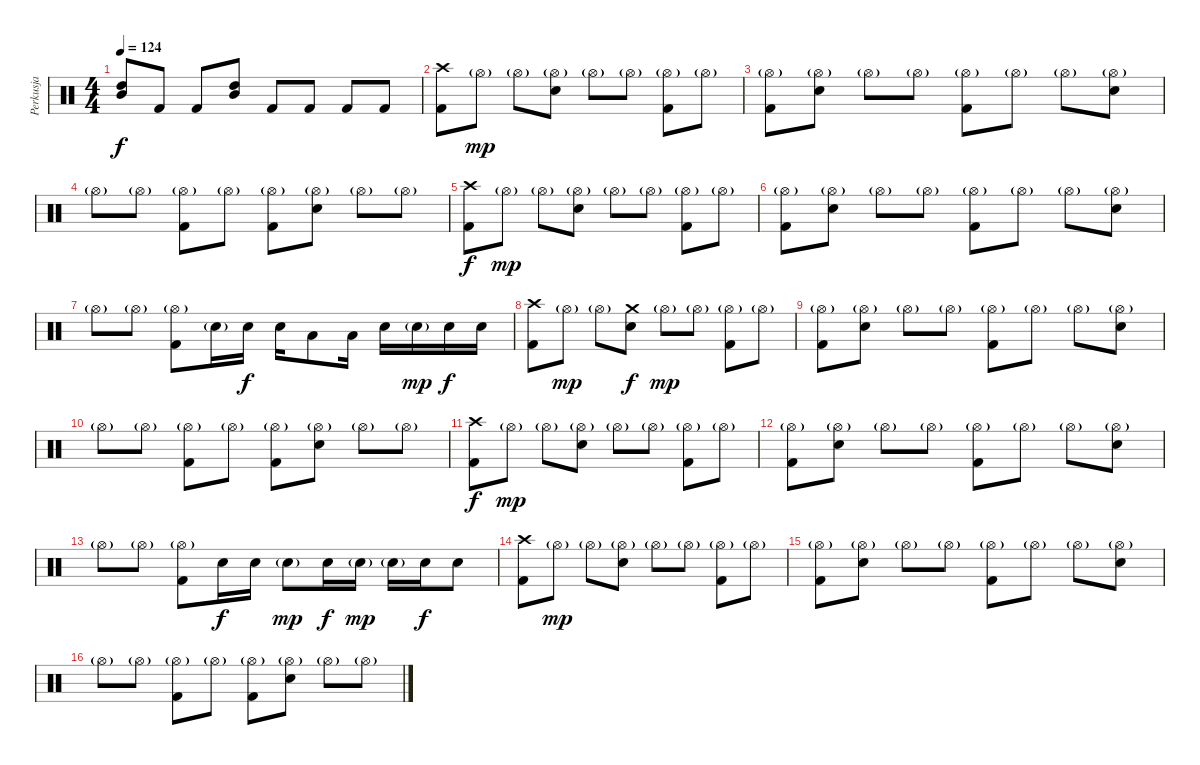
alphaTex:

\track ("Perkusja" "Perkusja") {instrument percussion}
\staff {score}
\articulation defaults
\ts (4 4)
\tempo 124
\clef neutral
\ks c
("High Tom (hit)" "Mid Tom (hit)").8{dy f} "Kick (hit) 2".8 "Kick (hit) 2".8 ("High Tom (hit)" "Mid Tom (hit)").8 "Kick (hit) 2".8 "Kick (hit) 2".8 "Kick (hit) 2".8 "Kick (hit) 2".8 |
("Kick (hit) 2" "Crash high (hit)").8 "Hi-Hat (open)"{g}.8{dy mp} "Hi-Hat (open)"{g}.8 ("Snare (hit) 2" "Hi-Hat (open)"{g}).8 "Hi-Hat (open)"{g}.8 "Hi-Hat (open)"{g}.8 ("Kick (hit) 2" "Hi-Hat (open)"{g}).8 "Hi-Hat (open)"{g}.8 |
("Kick (hit) 2" "Hi-Hat (open)"{g}).8 ("Snare (hit) 2" "Hi-Hat (open)"{g}).8 "Hi-Hat (open)"{g}.8 "Hi-Hat (open)"{g}.8 ("Kick (hit) 2" "Hi-Hat (open)"{g}).8 "Hi-Hat (open)"{g}.8 "Hi-Hat (open)"{g}.8 ("Snare (hit) 2" "Hi-Hat (open)"{g}).8 |
"Hi-Hat (open)"{g}.8 "Hi-Hat (open)"{g}.8 ("Kick (hit) 2" "Hi-Hat (open)"{g}).8 "Hi-Hat (open)"{g}.8 ("Kick (hit) 2" "Hi-Hat (open)"{g}).8 ("Snare (hit) 2" "Hi-Hat (open)"{g}).8 "Hi-Hat (open)"{g}.8 "Hi-Hat (open)"{g}.8 |
("Kick (hit) 2" "Crash high (hit)").8{dy f} "Hi-Hat (open)"{g}.8{dy mp} "Hi-Hat (open)"{g}.8 ("Snare (hit) 2" "Hi-Hat (open)"{g}).8 "Hi-Hat (open)"{g}.8 "Hi-Hat (open)"{g}.8 ("Kick (hit) 2" "Hi-Hat (open)"{g}).8 "Hi-Hat (open)"{g}.8 |
("Kick (hit) 2" "Hi-Hat (open)"{g}).8 ("Snare (hit) 2" "Hi-Hat (open)"{g}).8 "Hi-Hat (open)"{g}.8 "Hi-Hat (open)"{g}.8 ("Kick (hit) 2" "Hi-Hat (open)"{g}).8 "Hi-Hat (open)"{g}.8 "Hi-Hat (open)"{g}.8 ("Snare (hit) 2" "Hi-Hat (open)"{g}).8 |
"Hi-Hat (open)"{g}.8 "Hi-Hat (open)"{g}.8 ("Kick (hit) 2" "Hi-Hat (open)"{g}).8 "Snare (hit) 2"{g}.16 "Snare (hit) 2".16{dy f} "Snare (hit) 2".16 "Low Tom (hit)".8 "Low Tom (hit)".16 "Snare (hit) 2".16 "Snare (hit) 2"{g}.16{dy mp} "Snare (hit) 2".16{dy f} "Snare (hit) 2".16 |
("Kick (hit) 2" "Crash high (hit)").8 "Hi-Hat (open)"{g}.8{dy mp} "Hi-Hat (open)"{g}.8 ("Snare (hit) 2" "Crash medium (hit)").8{dy f} "Hi-Hat (open)"{g}.8{dy mp} "Hi-Hat (open)"{g}.8 ("Kick (hit) 2" "Hi-Hat (open)"{g}).8 "Hi-Hat (open)"{g}.8 |
("Kick (hit) 2" "Hi-Hat (open)"{g}).8 ("Snare (hit) 2" "Hi-Hat (open)"{g}).8 "Hi-Hat (open)"{g}.8 "Hi-Hat (open)"{g}.8 ("Kick (hit) 2" "Hi-Hat (open)"{g}).8 "Hi-Hat (open)"{g}.8 "Hi-Hat (open)"{g}.8 ("Snare (hit) 2" "Hi-Hat (open)"{g}).8 |
"Hi-Hat (open)"{g}.8 "Hi-Hat (open)"{g}.8 ("Kick (hit) 2" "Hi-Hat (open)"{g}).8 "Hi-Hat (open)"{g}.8 ("Kick (hit) 2" "Hi-Hat (open)"{g}).8 ("Snare (hit) 2" "Hi-Hat (open)"{g}).8 "Hi-Hat (open)"{g}.8 "Hi-Hat (open)"{g}.8 |
("Kick (hit) 2" "Crash high (hit)").8{dy f} "Hi-Hat (open)"{g}.8{dy mp} "Hi-Hat (open)"{g}.8 ("Snare (hit) 2" "Hi-Hat (open)"{g}).8 "Hi-Hat (open)"{g}.8 "Hi-Hat (open)"{g}.8 ("Kick (hit) 2" "Hi-Hat (open)"{g}).8 "Hi-Hat (open)"{g}.8 |
("Kick (hit) 2" "Hi-Hat (open)"{g}).8 ("Snare (hit) 2" "Hi-Hat (open)"{g}).8 "Hi-Hat (open)"{g}.8 "Hi-Hat (open)"{g}.8 ("Kick (hit) 2" "Hi-Hat (open)"{g}).8 "Hi-Hat (open)"{g}.8 "Hi-Hat (open)"{g}.8 ("Snare (hit) 2" "Hi-Hat (open)"{g}).8 |
"Hi-Hat (open)"{g}.8 "Hi-Hat (open)"{g}.8 ("Kick (hit) 2" "Hi-Hat (open)"{g}).8 "Snare (hit) 2".16{dy f} "Snare (hit) 2".16 "Snare (hit) 2"{g}.8{dy mp} "Snare (hit) 2".16{dy f} "Snare (hit) 2"{g}.16{dy mp} "Snare (hit) 2"{g}.16 "Snare (hit) 2".16{dy f} "Snare (hit) 2".8 |
("Kick (hit) 2" "Crash high (hit)").8 "Hi-Hat (open)"{g}.8{dy mp} "Hi-Hat (open)"{g}.8 ("Snare (hit) 2" "Hi-Hat (open)"{g}).8 "Hi-Hat (open)"{g}.8 "Hi-Hat (open)"{g}.8 ("Kick (hit) 2" "Hi-Hat (open)"{g}).8 "Hi-Hat (open)"{g}.8 |
("Kick (hit) 2" "Hi-Hat (open)"{g}).8 ("Snare (hit) 2" "Hi-Hat (open)"{g}).8 "Hi-Hat (open)"{g}.8 "Hi-Hat (open)"{g}.8 ("Kick (hit) 2" "Hi-Hat (open)"{g}).8 "Hi-Hat (open)"{g}.8 "Hi-Hat (open)"{g}.8 ("Snare (hit) 2" "Hi-Hat (open)"{g}).8 |
"Hi-Hat (open)"{g}.8 "Hi-Hat (open)"{g}.8 ("Kick (hit) 2" "Hi-Hat (open)"{g}).8 "Hi-Hat (open)"{g}.8 ("Kick (hit) 2" "Hi-Hat (open)"{g}).8 ("Snare (hit) 2" "Hi-Hat (open)"{g}).8 "Hi-Hat (open)"{g}.8 "Hi-Hat (open)"{g}.8
